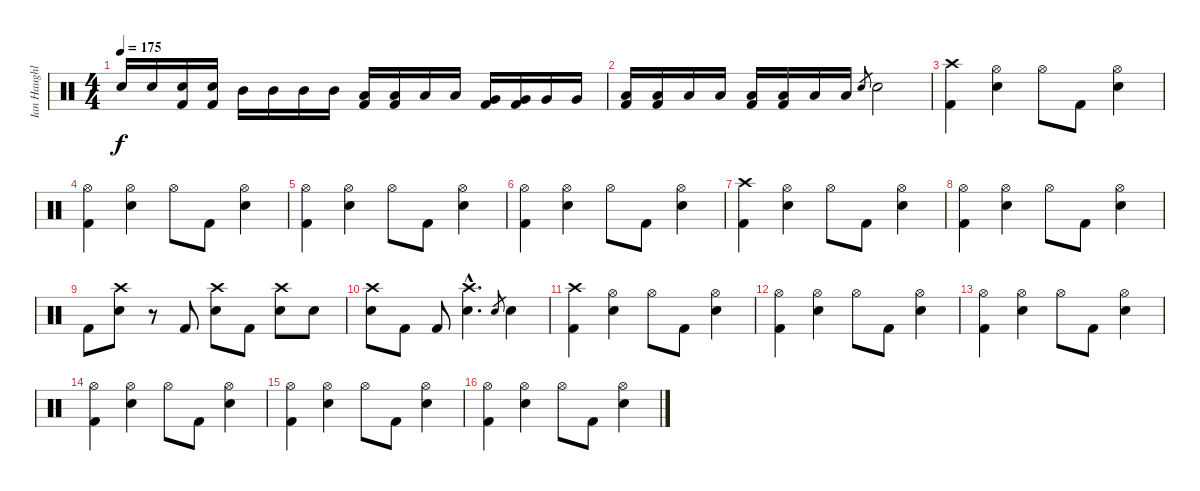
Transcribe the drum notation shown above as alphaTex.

\track ("Ian Haughland" "Ian Haughl") {instrument percussion}
\staff {score}
\articulation defaults
\ts (4 4)
\tempo 175
\clef neutral
\ks c "Snare (hit) 2".16{dy f} "Snare (hit) 2".16
("Kick (hit) 2" "Snare (hit) 2").16 ("Kick (hit) 2" "Snare (hit) 2").16 "Mid Tom (hit)".16 "Mid Tom (hit)".16 "Mid Tom (hit)".16 "Mid Tom (hit)".16 ("Kick (hit) 2" "Low Tom (hit)").16 ("Kick (hit) 2" "Low Tom (hit)").16 "Low Tom (hit)".16 "Low Tom (hit)".16 ("Kick (hit) 2" "Very Low Tom (hit)").16 ("Kick (hit) 2" "Very Low Tom (hit)").16 "Very Low Tom (hit)".16 "Very Low Tom (hit)".16 |
("Kick (hit) 2" "Low Floor Tom (hit)").16 ("Kick (hit) 2" "Low Floor Tom (hit)").16 "Low Floor Tom (hit)".16 "Low Floor Tom (hit)".16 ("Kick (hit) 2" "Low Floor Tom (hit)").16 ("Kick (hit) 2" "Low Floor Tom (hit)").16 "Low Floor Tom (hit)".16 "Low Floor Tom (hit)".16 "Snare (hit) 2".8{gr} "Snare (hit) 2".2 |
("Crash high (hit)" "Kick (hit) 2").4 ("Hi-Hat (open)" "Snare (hit) 2").4 "Hi-Hat (open)".8 "Kick (hit) 2".8 ("Hi-Hat (open)" "Snare (hit) 2").4 |
("Hi-Hat (open)" "Kick (hit) 2").4 ("Hi-Hat (open)" "Snare (hit) 2").4 "Hi-Hat (open)".8 "Kick (hit) 2".8 ("Hi-Hat (open)" "Snare (hit) 2").4 |
("Hi-Hat (open)" "Kick (hit) 2").4 ("Hi-Hat (open)" "Snare (hit) 2").4 "Hi-Hat (open)".8 "Kick (hit) 2".8 ("Hi-Hat (open)" "Snare (hit) 2").4 |
("Hi-Hat (open)" "Kick (hit) 2").4 ("Hi-Hat (open)" "Snare (hit) 2").4 "Hi-Hat (open)".8 "Kick (hit) 2".8 ("Hi-Hat (open)" "Snare (hit) 2").4 |
("Crash high (hit)" "Kick (hit) 2").4 ("Hi-Hat (open)" "Snare (hit) 2").4 "Hi-Hat (open)".8 "Kick (hit) 2".8 ("Hi-Hat (open)" "Snare (hit) 2").4 |
("Hi-Hat (open)" "Kick (hit) 2").4 ("Hi-Hat (open)" "Snare (hit) 2").4 "Hi-Hat (open)".8 "Kick (hit) 2".8 ("Hi-Hat (open)" "Snare (hit) 2").4 |
"Kick (hit) 2".8 ("Crash high (hit)" "Snare (hit) 2").8 r.8 "Kick (hit) 2".8 ("Crash high (hit)" "Snare (hit) 2").8 "Kick (hit) 2".8 ("Crash high (hit)" "Snare (hit) 2").8 "Snare (hit) 2".8 |
("Crash high (hit)" "Snare (hit) 2").8 "Kick (hit) 2".8 "Kick (hit) 2".8 ("Crash high (hit)"{hac} "Snare (hit) 2"{hac}).4{d} "Snare (hit) 2".8{gr} "Snare (hit) 2".4 |
("Crash high (hit)" "Kick (hit) 2").4 ("Hi-Hat (open)" "Snare (hit) 2").4 "Hi-Hat (open)".8 "Kick (hit) 2".8 ("Hi-Hat (open)" "Snare (hit) 2").4 |
("Hi-Hat (open)" "Kick (hit) 2").4 ("Hi-Hat (open)" "Snare (hit) 2").4 "Hi-Hat (open)".8 "Kick (hit) 2".8 ("Hi-Hat (open)" "Snare (hit) 2").4 |
("Hi-Hat (open)" "Kick (hit) 2").4 ("Hi-Hat (open)" "Snare (hit) 2").4 "Hi-Hat (open)".8 "Kick (hit) 2".8 ("Hi-Hat (open)" "Snare (hit) 2").4 |
("Hi-Hat (open)" "Kick (hit) 2").4 ("Hi-Hat (open)" "Snare (hit) 2").4 "Hi-Hat (open)".8 "Kick (hit) 2".8 ("Hi-Hat (open)" "Snare (hit) 2").4 |
("Hi-Hat (open)" "Kick (hit) 2").4 ("Hi-Hat (open)" "Snare (hit) 2").4 "Hi-Hat (open)".8 "Kick (hit) 2".8 ("Hi-Hat (open)" "Snare (hit) 2").4 |
("Hi-Hat (open)" "Kick (hit) 2").4 ("Hi-Hat (open)" "Snare (hit) 2").4 "Hi-Hat (open)".8 "Kick (hit) 2".8 ("Hi-Hat (open)" "Snare (hit) 2").4
